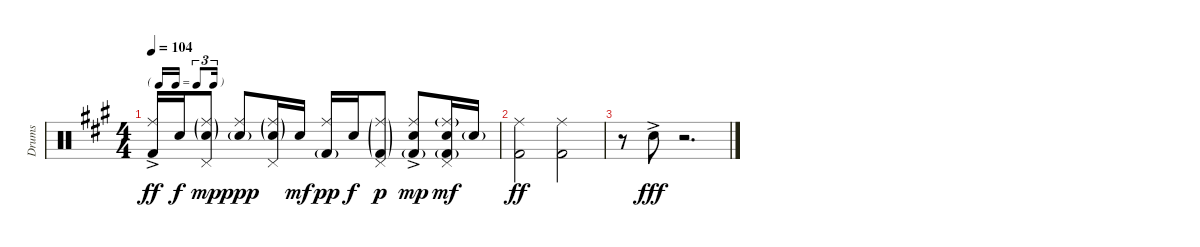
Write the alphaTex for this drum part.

\track ("Drums" "Drums") {instrument percussion}
\staff {score}
\articulation defaults
\ts (4 4)
\tf triplet16th
\tempo 104
\clef neutral
\ks a
("Ride (middle)" "Kick (hit) 2"{ac}).16{dy ff} "Snare (hit) 2".16{dy f} ("Ride (middle)"{g} "Pedal Hi-Hat (hit)" "Snare (hit) 2"{g}).8{dy mp} ("Ride (middle)" "Snare (hit) 2"{g}).8{dy ppp} ("Ride (middle)"{g} "Pedal Hi-Hat (hit)" "Snare (hit) 2"{g}).16 "Snare (hit) 2".16{dy mf} ("Ride (middle)" "Kick (hit) 2"{g}).16{dy pp} "Snare (hit) 2".16{dy f} ("Ride (middle)"{g} "Pedal Hi-Hat (hit)" "Kick (hit) 2"{g}).8{dy p} ("Ride (middle)" "Snare (hit) 2"{ac} "Kick (hit) 2"{g}).8{dy mp} ("Ride (middle)"{g} "Pedal Hi-Hat (hit)" "Snare (hit) 2" "Kick (hit) 2"{g}).16{dy mf} "Snare (hit) 2"{g}.16 |
("Ride (middle)" "Kick (hit) 2").2{dy ff} ("Ride (middle)" "Kick (hit) 2").2 |
r.8 "Snare (hit) 2"{ac}.8{dy fff} r.2{d}
